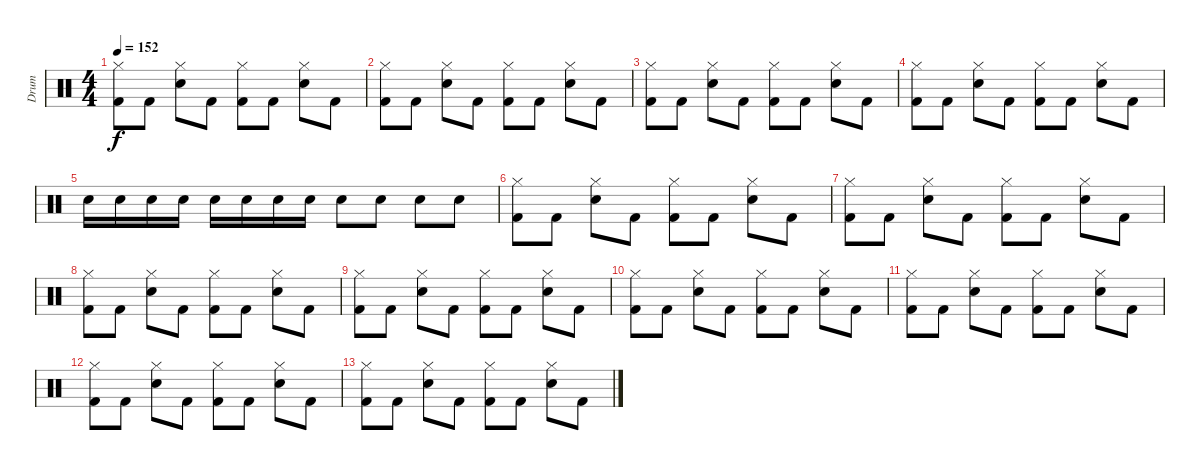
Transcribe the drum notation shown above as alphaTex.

\track ("Drum" "Drum") {instrument percussion}
\staff {score}
\articulation defaults
\ts (4 4)
\tempo 152
\clef neutral
\ks c
("Hi-Hat (closed)" "Kick (hit) 2").8{dy f} "Kick (hit) 2".8 ("Hi-Hat (closed)" "Electric Snare (hit)").8 "Kick (hit) 2".8 ("Hi-Hat (closed)" "Kick (hit) 2").8 "Kick (hit) 2".8 ("Hi-Hat (closed)" "Electric Snare (hit)").8 "Kick (hit) 2".8 |
("Hi-Hat (closed)" "Kick (hit) 2").8 "Kick (hit) 2".8 ("Hi-Hat (closed)" "Electric Snare (hit)").8 "Kick (hit) 2".8 ("Hi-Hat (closed)" "Kick (hit) 2").8 "Kick (hit) 2".8 ("Hi-Hat (closed)" "Electric Snare (hit)").8 "Kick (hit) 2".8 |
("Hi-Hat (closed)" "Kick (hit) 2").8 "Kick (hit) 2".8 ("Hi-Hat (closed)" "Electric Snare (hit)").8 "Kick (hit) 2".8 ("Hi-Hat (closed)" "Kick (hit) 2").8 "Kick (hit) 2".8 ("Hi-Hat (closed)" "Electric Snare (hit)").8 "Kick (hit) 2".8 |
("Hi-Hat (closed)" "Kick (hit) 2").8 "Kick (hit) 2".8 ("Hi-Hat (closed)" "Electric Snare (hit)").8 "Kick (hit) 2".8 ("Hi-Hat (closed)" "Kick (hit) 2").8 "Kick (hit) 2".8 ("Hi-Hat (closed)" "Electric Snare (hit)").8 "Kick (hit) 2".8 |
"Electric Snare (hit)".16 "Electric Snare (hit)".16 "Electric Snare (hit)".16 "Electric Snare (hit)".16 "Electric Snare (hit)".16 "Electric Snare (hit)".16 "Electric Snare (hit)".16 "Electric Snare (hit)".16 "Electric Snare (hit)".8 "Electric Snare (hit)".8 "Electric Snare (hit)".8 "Electric Snare (hit)".8 |
("Hi-Hat (closed)" "Kick (hit) 2").8 "Kick (hit) 2".8 ("Hi-Hat (closed)" "Electric Snare (hit)").8 "Kick (hit) 2".8 ("Hi-Hat (closed)" "Kick (hit) 2").8 "Kick (hit) 2".8 ("Hi-Hat (closed)" "Electric Snare (hit)").8 "Kick (hit) 2".8 |
("Hi-Hat (closed)" "Kick (hit) 2").8 "Kick (hit) 2".8 ("Hi-Hat (closed)" "Electric Snare (hit)").8 "Kick (hit) 2".8 ("Hi-Hat (closed)" "Kick (hit) 2").8 "Kick (hit) 2".8 ("Hi-Hat (closed)" "Electric Snare (hit)").8 "Kick (hit) 2".8 |
("Hi-Hat (closed)" "Kick (hit) 2").8{volume 3} "Kick (hit) 2".8 ("Hi-Hat (closed)" "Electric Snare (hit)").8 "Kick (hit) 2".8 ("Hi-Hat (closed)" "Kick (hit) 2").8 "Kick (hit) 2".8 ("Hi-Hat (closed)" "Electric Snare (hit)").8 "Kick (hit) 2".8 |
("Hi-Hat (closed)" "Kick (hit) 2").8 "Kick (hit) 2".8 ("Hi-Hat (closed)" "Electric Snare (hit)").8 "Kick (hit) 2".8 ("Hi-Hat (closed)" "Kick (hit) 2").8 "Kick (hit) 2".8 ("Hi-Hat (closed)" "Electric Snare (hit)").8 "Kick (hit) 2".8 |
("Hi-Hat (closed)" "Kick (hit) 2").8 "Kick (hit) 2".8 ("Hi-Hat (closed)" "Electric Snare (hit)").8 "Kick (hit) 2".8 ("Hi-Hat (closed)" "Kick (hit) 2").8 "Kick (hit) 2".8 ("Hi-Hat (closed)" "Electric Snare (hit)").8 "Kick (hit) 2".8 |
("Hi-Hat (closed)" "Kick (hit) 2").8 "Kick (hit) 2".8 ("Hi-Hat (closed)" "Electric Snare (hit)").8 "Kick (hit) 2".8 ("Hi-Hat (closed)" "Kick (hit) 2").8 "Kick (hit) 2".8 ("Hi-Hat (closed)" "Electric Snare (hit)").8 "Kick (hit) 2".8 |
("Hi-Hat (closed)" "Kick (hit) 2").8 "Kick (hit) 2".8 ("Hi-Hat (closed)" "Electric Snare (hit)").8 "Kick (hit) 2".8 ("Hi-Hat (closed)" "Kick (hit) 2").8 "Kick (hit) 2".8 ("Hi-Hat (closed)" "Electric Snare (hit)").8 "Kick (hit) 2".8 |
("Hi-Hat (closed)" "Kick (hit) 2").8{volume 2} "Kick (hit) 2".8 ("Hi-Hat (closed)" "Electric Snare (hit)").8 "Kick (hit) 2".8 ("Hi-Hat (closed)" "Kick (hit) 2").8{volume 1} "Kick (hit) 2".8 ("Hi-Hat (closed)" "Electric Snare (hit)").8 "Kick (hit) 2".8
